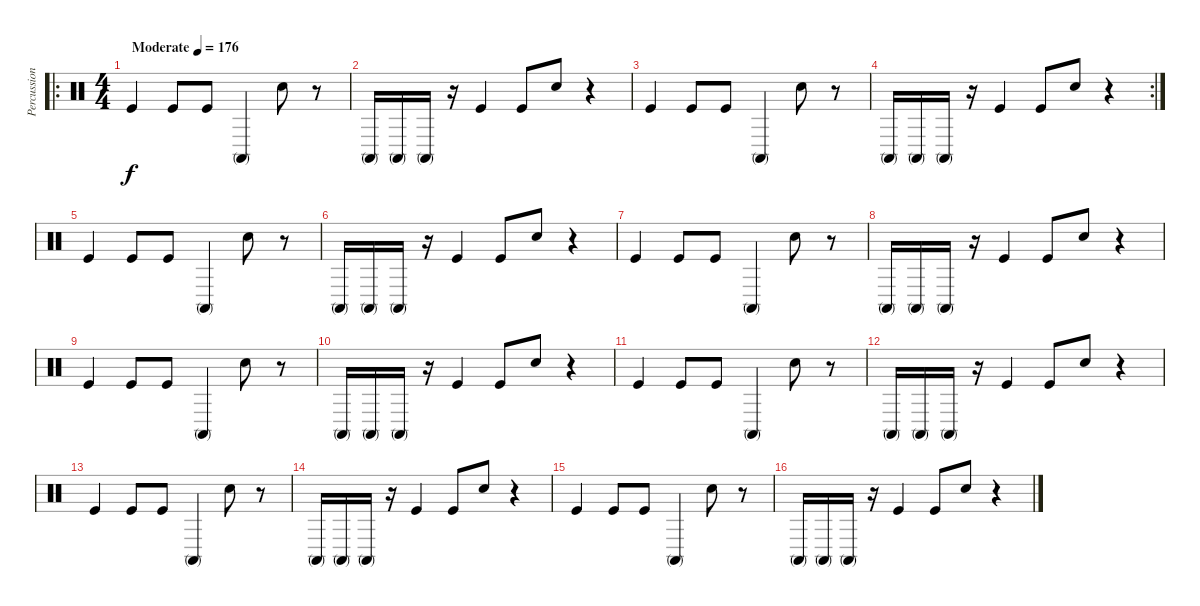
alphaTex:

\track ("Percussions" "Percussion") {instrument percussion}
\staff {score}
\articulation defaults
\ro
\ts (4 4)
\tempo (176 "Moderate")
\clef neutral
\ks c "Kick (hit)".4{dy f} "Kick (hit)".8 "Kick (hit)".8 "Conga high (mute)".4 "Snare (hit) 2".8
r.8 |
"Conga high (mute)".16 "Conga high (mute)".16 "Conga high (mute)".16 r.16 "Kick (hit)".4 "Kick (hit)".8 "Snare (hit) 2".8 r.4 |
"Kick (hit)".4 "Kick (hit)".8 "Kick (hit)".8 "Conga high (mute)".4 "Snare (hit) 2".8 r.8 |
\rc 2 "Conga high (mute)".16 "Conga high (mute)".16 "Conga high (mute)".16
r.16 "Kick (hit)".4 "Kick (hit)".8 "Snare (hit) 2".8 r.4 |
"Kick (hit)".4 "Kick (hit)".8 "Kick (hit)".8 "Conga high (mute)".4 "Snare (hit) 2".8 r.8 |
"Conga high (mute)".16 "Conga high (mute)".16 "Conga high (mute)".16 r.16 "Kick (hit)".4 "Kick (hit)".8 "Snare (hit) 2".8 r.4 |
"Kick (hit)".4 "Kick (hit)".8 "Kick (hit)".8 "Conga high (mute)".4 "Snare (hit) 2".8 r.8 |
"Conga high (mute)".16 "Conga high (mute)".16 "Conga high (mute)".16 r.16 "Kick (hit)".4 "Kick (hit)".8 "Snare (hit) 2".8 r.4 |
"Kick (hit)".4 "Kick (hit)".8 "Kick (hit)".8 "Conga high (mute)".4 "Snare (hit) 2".8 r.8 |
"Conga high (mute)".16 "Conga high (mute)".16 "Conga high (mute)".16 r.16 "Kick (hit)".4 "Kick (hit)".8 "Snare (hit) 2".8 r.4 |
"Kick (hit)".4 "Kick (hit)".8 "Kick (hit)".8 "Conga high (mute)".4 "Snare (hit) 2".8 r.8 |
"Conga high (mute)".16 "Conga high (mute)".16 "Conga high (mute)".16 r.16 "Kick (hit)".4 "Kick (hit)".8 "Snare (hit) 2".8 r.4 |
"Kick (hit)".4 "Kick (hit)".8 "Kick (hit)".8 "Conga high (mute)".4 "Snare (hit) 2".8 r.8 |
"Conga high (mute)".16 "Conga high (mute)".16 "Conga high (mute)".16 r.16 "Kick (hit)".4 "Kick (hit)".8 "Snare (hit) 2".8 r.4 |
"Kick (hit)".4 "Kick (hit)".8 "Kick (hit)".8 "Conga high (mute)".4 "Snare (hit) 2".8 r.8 |
"Conga high (mute)".16 "Conga high (mute)".16 "Conga high (mute)".16 r.16 "Kick (hit)".4 "Kick (hit)".8 "Snare (hit) 2".8 r.4
